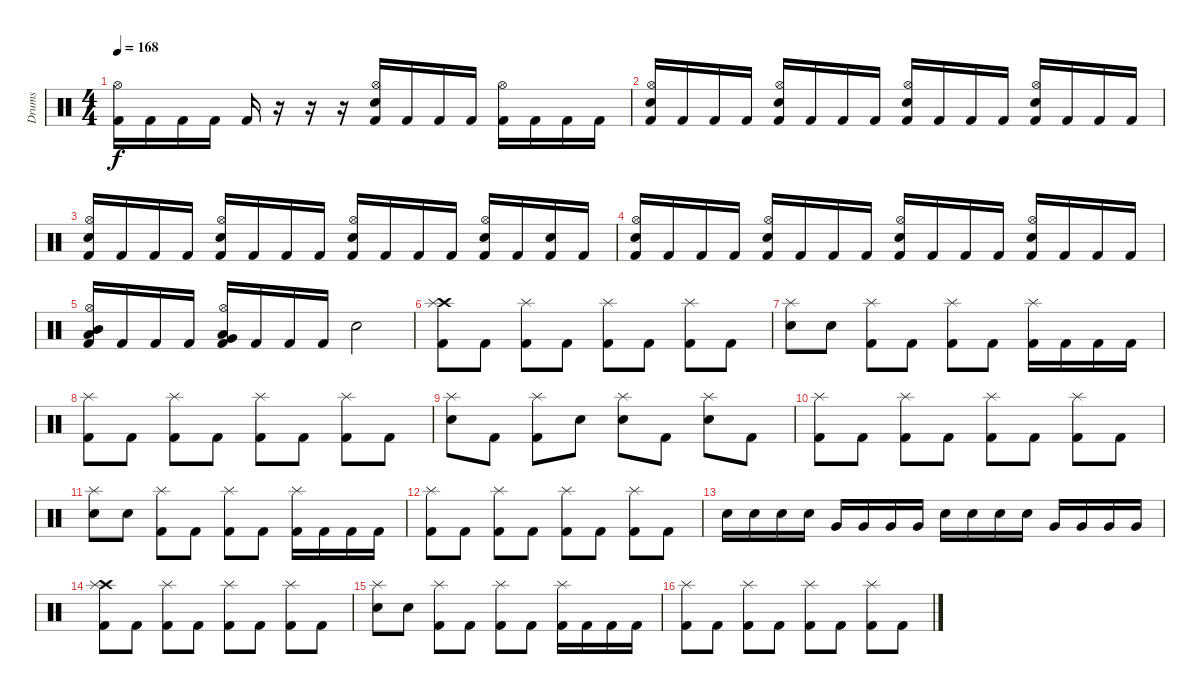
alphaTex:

\track ("Drums" "Drums") {instrument percussion}
\staff {score}
\articulation defaults
\ts (4 4)
\tempo 168
\clef neutral
\ks c
("Kick (hit) 2" "Hi-Hat (open)").16{dy f} "Kick (hit) 2".16 "Kick (hit) 2".16 "Kick (hit) 2".16 "Kick (hit) 2".16 r.16 r.16 r.16 ("Electric Snare (hit)" "Kick (hit) 2" "Hi-Hat (open)").16 "Kick (hit) 2".16 "Kick (hit) 2".16 "Kick (hit) 2".16 ("Kick (hit) 2" "Hi-Hat (open)").16 "Kick (hit) 2".16 "Kick (hit) 2".16 "Kick (hit) 2".16 |
("Electric Snare (hit)" "Kick (hit) 2" "Hi-Hat (open)").16 "Kick (hit) 2".16 "Kick (hit) 2".16 "Kick (hit) 2".16 ("Electric Snare (hit)" "Kick (hit) 2" "Hi-Hat (open)").16 "Kick (hit) 2".16 "Kick (hit) 2".16 "Kick (hit) 2".16 ("Electric Snare (hit)" "Kick (hit) 2" "Hi-Hat (open)").16 "Kick (hit) 2".16 "Kick (hit) 2".16 "Kick (hit) 2".16 ("Electric Snare (hit)" "Kick (hit) 2" "Hi-Hat (open)").16 "Kick (hit) 2".16 "Kick (hit) 2".16 "Kick (hit) 2".16 |
("Electric Snare (hit)" "Kick (hit) 2" "Hi-Hat (open)").16 "Kick (hit) 2".16 "Kick (hit) 2".16 "Kick (hit) 2".16 ("Electric Snare (hit)" "Kick (hit) 2" "Hi-Hat (open)").16 "Kick (hit) 2".16 "Kick (hit) 2".16 "Kick (hit) 2".16 ("Electric Snare (hit)" "Kick (hit) 2" "Hi-Hat (open)").16 "Kick (hit) 2".16 "Kick (hit) 2".16 "Kick (hit) 2".16 ("Electric Snare (hit)" "Kick (hit) 2" "Hi-Hat (open)").16 "Kick (hit) 2".16 ("Electric Snare (hit)" "Kick (hit) 2").16 "Kick (hit) 2".16 |
("Electric Snare (hit)" "Kick (hit) 2" "Hi-Hat (open)").16 "Kick (hit) 2".16 "Kick (hit) 2".16 "Kick (hit) 2".16 ("Electric Snare (hit)" "Kick (hit) 2" "Hi-Hat (open)").16 "Kick (hit) 2".16 "Kick (hit) 2".16 "Kick (hit) 2".16 ("Electric Snare (hit)" "Kick (hit) 2" "Hi-Hat (open)").16 "Kick (hit) 2".16 "Kick (hit) 2".16 "Kick (hit) 2".16 ("Electric Snare (hit)" "Kick (hit) 2" "Hi-Hat (open)").16 "Kick (hit) 2".16 "Kick (hit) 2".16 "Kick (hit) 2".16 |
("Mid Tom (hit)" "Low Tom (hit)" "Kick (hit) 2" "Hi-Hat (open)").16 "Kick (hit) 2".16 "Kick (hit) 2".16 "Kick (hit) 2".16 ("Very Low Tom (hit)" "Low Tom (hit)" "Kick (hit) 2" "Hi-Hat (open)").16 "Kick (hit) 2".16 "Kick (hit) 2".16 "Kick (hit) 2".16 "Electric Snare (hit)".2 |
("Crash high (hit)" "Kick (hit) 2" "Splash (hit)").8 "Kick (hit) 2".8 ("Kick (hit) 2" "Splash (hit)").8 "Kick (hit) 2".8 ("Kick (hit) 2" "Splash (hit)").8 "Kick (hit) 2".8 ("Kick (hit) 2" "Splash (hit)").8 "Kick (hit) 2".8 |
("Electric Snare (hit)" "Splash (hit)").8 "Electric Snare (hit)".8 ("Kick (hit) 2" "Splash (hit)").8 "Kick (hit) 2".8 ("Kick (hit) 2" "Splash (hit)").8 "Kick (hit) 2".8 ("Kick (hit) 2" "Splash (hit)").16 "Kick (hit) 2".16 "Kick (hit) 2".16 "Kick (hit) 2".16 |
("Kick (hit) 2" "Splash (hit)").8 "Kick (hit) 2".8 ("Kick (hit) 2" "Splash (hit)").8 "Kick (hit) 2".8 ("Kick (hit) 2" "Splash (hit)").8 "Kick (hit) 2".8 ("Kick (hit) 2" "Splash (hit)").8 "Kick (hit) 2".8 |
("Electric Snare (hit)" "Splash (hit)").8 "Kick (hit) 2".8 ("Kick (hit) 2" "Splash (hit)").8 "Electric Snare (hit)".8 ("Electric Snare (hit)" "Splash (hit)").8 "Kick (hit) 2".8 ("Electric Snare (hit)" "Splash (hit)").8 "Kick (hit) 2".8 |
("Kick (hit) 2" "Splash (hit)").8 "Kick (hit) 2".8 ("Kick (hit) 2" "Splash (hit)").8 "Kick (hit) 2".8 ("Kick (hit) 2" "Splash (hit)").8 "Kick (hit) 2".8 ("Kick (hit) 2" "Splash (hit)").8 "Kick (hit) 2".8 |
("Electric Snare (hit)" "Splash (hit)").8 "Electric Snare (hit)".8 ("Kick (hit) 2" "Splash (hit)").8 "Kick (hit) 2".8 ("Kick (hit) 2" "Splash (hit)").8 "Kick (hit) 2".8 ("Kick (hit) 2" "Splash (hit)").16 "Kick (hit) 2".16 "Kick (hit) 2".16 "Kick (hit) 2".16 |
("Kick (hit) 2" "Splash (hit)").8 "Kick (hit) 2".8 ("Kick (hit) 2" "Splash (hit)").8 "Kick (hit) 2".8 ("Kick (hit) 2" "Splash (hit)").8 "Kick (hit) 2".8 ("Kick (hit) 2" "Splash (hit)").8 "Kick (hit) 2".8 |
"Electric Snare (hit)".16 "Electric Snare (hit)".16 "Electric Snare (hit)".16 "Electric Snare (hit)".16 "Very Low Tom (hit)".16 "Very Low Tom (hit)".16 "Very Low Tom (hit)".16 "Very Low Tom (hit)".16 "Electric Snare (hit)".16 "Electric Snare (hit)".16 "Electric Snare (hit)".16 "Electric Snare (hit)".16 "Very Low Tom (hit)".16 "Very Low Tom (hit)".16 "Very Low Tom (hit)".16 "Very Low Tom (hit)".16 |
("Crash high (hit)" "Kick (hit) 2" "Splash (hit)").8 "Kick (hit) 2".8 ("Kick (hit) 2" "Splash (hit)").8 "Kick (hit) 2".8 ("Kick (hit) 2" "Splash (hit)").8 "Kick (hit) 2".8 ("Kick (hit) 2" "Splash (hit)").8 "Kick (hit) 2".8 |
("Electric Snare (hit)" "Splash (hit)").8 "Electric Snare (hit)".8 ("Kick (hit) 2" "Splash (hit)").8 "Kick (hit) 2".8 ("Kick (hit) 2" "Splash (hit)").8 "Kick (hit) 2".8 ("Kick (hit) 2" "Splash (hit)").16 "Kick (hit) 2".16 "Kick (hit) 2".16 "Kick (hit) 2".16 |
("Kick (hit) 2" "Splash (hit)").8 "Kick (hit) 2".8 ("Kick (hit) 2" "Splash (hit)").8 "Kick (hit) 2".8 ("Kick (hit) 2" "Splash (hit)").8 "Kick (hit) 2".8 ("Kick (hit) 2" "Splash (hit)").8 "Kick (hit) 2".8
